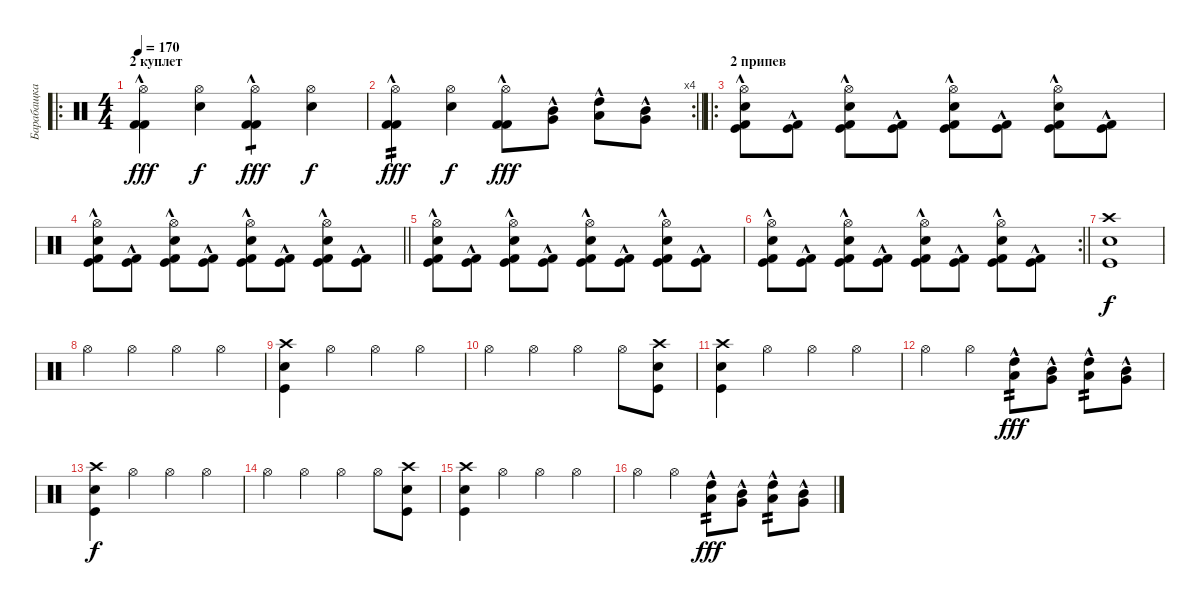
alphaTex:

\track ("Барабащка" "Барабащка") {instrument percussion}
\staff {score}
\articulation defaults
\ro
\ts (4 4)
\section ("" "2 куплет")
\tempo 170
\clef neutral
\ks c
("Hi-Hat (open)" "Kick (hit) 2"{hac} "Kick (hit) 2").4{dy fff} ("Hi-Hat (open)" "Snare (hit) 2").4{dy f} ("Hi-Hat (open)" "Kick (hit) 2"{hac} "Kick (hit) 2").4{tp 1 dy fff} ("Hi-Hat (open)" "Snare (hit) 2").4{dy f} |
\rc 4
\barLineRight lightlight
("Hi-Hat (open)" "Kick (hit) 2"{hac} "Kick (hit) 2").4{tp 2 dy fff} ("Hi-Hat (open)" "Snare (hit) 2").4{dy f} ("Hi-Hat (open)" "Kick (hit) 2"{hac} "Kick (hit) 2").8{dy fff} ("Mid Tom (hit)"{hac} "Very Low Tom (hit)"{hac}).8 ("High Tom (hit)"{hac} "Low Tom (hit)"{hac}).8 ("Mid Tom (hit)"{hac} "Very Low Tom (hit)"{hac}).8 |
\ro
\section ("" "2 припев")
("Hi-Hat (open)" "Snare (hit) 2" "Kick (hit) 2"{hac} "Kick (hit)").8 ("Kick (hit) 2"{hac} "Kick (hit)").8 ("Hi-Hat (open)" "Snare (hit) 2" "Kick (hit) 2"{hac} "Kick (hit)").8 ("Kick (hit) 2"{hac} "Kick (hit)").8 ("Hi-Hat (open)" "Snare (hit) 2" "Kick (hit) 2"{hac} "Kick (hit)").8 ("Kick (hit) 2"{hac} "Kick (hit)").8 ("Hi-Hat (open)" "Snare (hit) 2" "Kick (hit) 2"{hac} "Kick (hit)").8 ("Kick (hit) 2"{hac} "Kick (hit)").8 |
\barLineRight lightlight
("Hi-Hat (open)" "Snare (hit) 2" "Kick (hit) 2"{hac} "Kick (hit)").8 ("Kick (hit) 2"{hac} "Kick (hit)").8 ("Hi-Hat (open)" "Snare (hit) 2" "Kick (hit) 2"{hac} "Kick (hit)").8 ("Kick (hit) 2"{hac} "Kick (hit)").8 ("Hi-Hat (open)" "Snare (hit) 2" "Kick (hit) 2"{hac} "Kick (hit)").8 ("Kick (hit) 2"{hac} "Kick (hit)").8 ("Hi-Hat (open)" "Snare (hit) 2" "Kick (hit) 2"{hac} "Kick (hit)").8 ("Kick (hit) 2"{hac} "Kick (hit)").8 |
("Hi-Hat (open)" "Snare (hit) 2" "Kick (hit) 2"{hac} "Kick (hit)").8 ("Kick (hit) 2"{hac} "Kick (hit)").8 ("Hi-Hat (open)" "Snare (hit) 2" "Kick (hit) 2"{hac} "Kick (hit)").8 ("Kick (hit) 2"{hac} "Kick (hit)").8 ("Hi-Hat (open)" "Snare (hit) 2" "Kick (hit) 2"{hac} "Kick (hit)").8 ("Kick (hit) 2"{hac} "Kick (hit)").8 ("Hi-Hat (open)" "Snare (hit) 2" "Kick (hit) 2"{hac} "Kick (hit)").8 ("Kick (hit) 2"{hac} "Kick (hit)").8 |
\rc 2
\barLineRight lightlight
("Hi-Hat (open)" "Snare (hit) 2" "Kick (hit) 2"{hac} "Kick (hit)").8 ("Kick (hit) 2"{hac} "Kick (hit)").8 ("Hi-Hat (open)" "Snare (hit) 2" "Kick (hit) 2"{hac} "Kick (hit)").8 ("Kick (hit) 2"{hac} "Kick (hit)").8 ("Hi-Hat (open)" "Snare (hit) 2" "Kick (hit) 2"{hac} "Kick (hit)").8 ("Kick (hit) 2"{hac} "Kick (hit)").8 ("Hi-Hat (open)" "Snare (hit) 2" "Kick (hit) 2"{hac} "Kick (hit)").8 ("Kick (hit) 2"{hac} "Kick (hit)").8 |
("Snare (hit) 2" "Crash high (hit)" "Kick (hit)").1{dy f} |
"Hi-Hat (open)".4 "Hi-Hat (open)".4 "Hi-Hat (open)".4 "Hi-Hat (open)".4 |
("Snare (hit) 2" "Crash high (hit)" "Kick (hit)").4 "Hi-Hat (open)".4 "Hi-Hat (open)".4 "Hi-Hat (open)".4 |
"Hi-Hat (open)".4 "Hi-Hat (open)".4 "Hi-Hat (open)".4 "Hi-Hat (open)".8 ("Snare (hit) 2" "Crash high (hit)" "Kick (hit)").8 |
("Snare (hit) 2" "Crash high (hit)" "Kick (hit)").4 "Hi-Hat (open)".4 "Hi-Hat (open)".4 "Hi-Hat (open)".4 |
"Hi-Hat (open)".4 "Hi-Hat (open)".4 ("High Tom (hit)"{hac} "Low Tom (hit)"{hac}).8{tp 2 dy fff} ("Mid Tom (hit)"{hac} "Very Low Tom (hit)"{hac}).8 ("High Tom (hit)"{hac} "Low Tom (hit)"{hac}).8{tp 2} ("Mid Tom (hit)"{hac} "Very Low Tom (hit)"{hac}).8 |
("Snare (hit) 2" "Crash high (hit)" "Kick (hit)").4{dy f} "Hi-Hat (open)".4 "Hi-Hat (open)".4 "Hi-Hat (open)".4 |
"Hi-Hat (open)".4 "Hi-Hat (open)".4 "Hi-Hat (open)".4 "Hi-Hat (open)".8 ("Snare (hit) 2" "Crash high (hit)" "Kick (hit)").8 |
("Snare (hit) 2" "Crash high (hit)" "Kick (hit)").4 "Hi-Hat (open)".4 "Hi-Hat (open)".4 "Hi-Hat (open)".4 |
"Hi-Hat (open)".4{volume 12} "Hi-Hat (open)".4 ("High Tom (hit)"{hac} "Low Tom (hit)"{hac}).8{tp 2 dy fff} ("Mid Tom (hit)"{hac} "Very Low Tom (hit)"{hac}).8 ("High Tom (hit)"{hac} "Low Tom (hit)"{hac}).8{tp 2} ("Mid Tom (hit)"{hac} "Very Low Tom (hit)"{hac}).8
